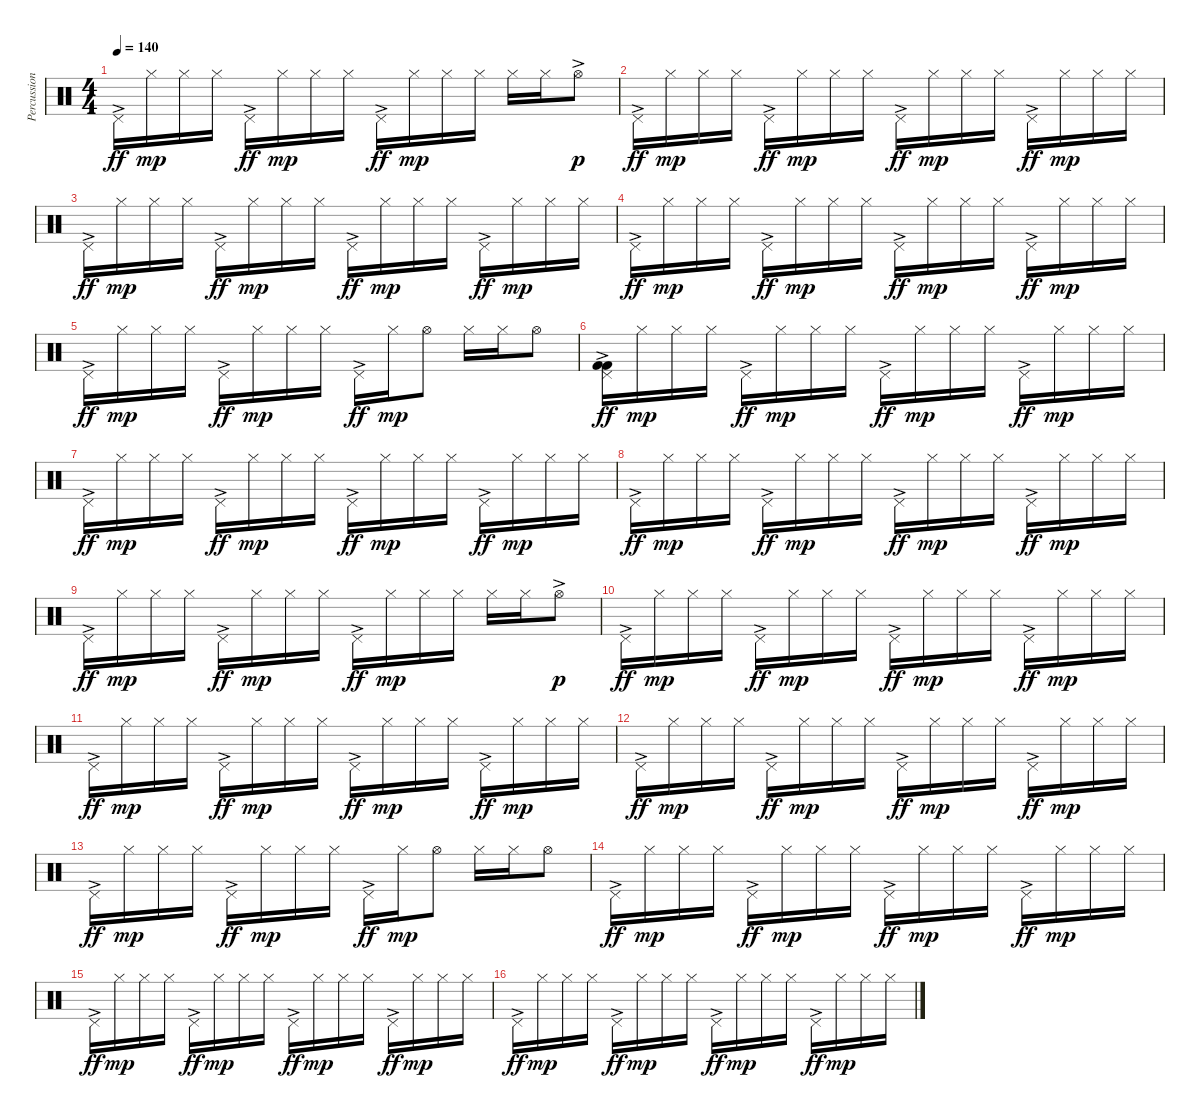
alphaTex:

\track ("Percussion" "Percussion") {instrument percussion}
\staff {score}
\articulation defaults
\ts (4 4)
\tempo 140
\clef neutral
\ks c "Pedal Hi-Hat (hit)"{ac}.16{dy ff} "Hi-Hat (closed)".16{dy mp} "Hi-Hat (closed)".16 "Hi-Hat (closed)".16 "Pedal Hi-Hat (hit)"{ac}.16{dy ff} "Hi-Hat (closed)".16{dy mp} "Hi-Hat (closed)".16 "Hi-Hat (closed)".16 "Pedal Hi-Hat (hit)"{ac}.16{dy ff} "Hi-Hat (closed)".16{dy mp} "Hi-Hat (closed)".16 "Hi-Hat (closed)".16 "Hi-Hat (closed)".16 "Hi-Hat (closed)".16 "Hi-Hat (open)"{ac}.8{dy p}
|
"Pedal Hi-Hat (hit)"{ac}.16{dy ff} "Hi-Hat (closed)".16{dy mp} "Hi-Hat (closed)".16 "Hi-Hat (closed)".16 "Pedal Hi-Hat (hit)"{ac}.16{dy ff} "Hi-Hat (closed)".16{dy mp} "Hi-Hat (closed)".16 "Hi-Hat (closed)".16 "Pedal Hi-Hat (hit)"{ac}.16{dy ff} "Hi-Hat (closed)".16{dy mp} "Hi-Hat (closed)".16 "Hi-Hat (closed)".16 "Pedal Hi-Hat (hit)"{ac}.16{dy ff} "Hi-Hat (closed)".16{dy mp} "Hi-Hat (closed)".16 "Hi-Hat (closed)".16 |
"Pedal Hi-Hat (hit)"{ac}.16{dy ff} "Hi-Hat (closed)".16{dy mp} "Hi-Hat (closed)".16 "Hi-Hat (closed)".16 "Pedal Hi-Hat (hit)"{ac}.16{dy ff} "Hi-Hat (closed)".16{dy mp} "Hi-Hat (closed)".16 "Hi-Hat (closed)".16 "Pedal Hi-Hat (hit)"{ac}.16{dy ff} "Hi-Hat (closed)".16{dy mp} "Hi-Hat (closed)".16 "Hi-Hat (closed)".16 "Pedal Hi-Hat (hit)"{ac}.16{dy ff} "Hi-Hat (closed)".16{dy mp} "Hi-Hat (closed)".16 "Hi-Hat (closed)".16 |
"Pedal Hi-Hat (hit)"{ac}.16{dy ff} "Hi-Hat (closed)".16{dy mp} "Hi-Hat (closed)".16 "Hi-Hat (closed)".16 "Pedal Hi-Hat (hit)"{ac}.16{dy ff} "Hi-Hat (closed)".16{dy mp} "Hi-Hat (closed)".16 "Hi-Hat (closed)".16 "Pedal Hi-Hat (hit)"{ac}.16{dy ff} "Hi-Hat (closed)".16{dy mp} "Hi-Hat (closed)".16 "Hi-Hat (closed)".16 "Pedal Hi-Hat (hit)"{ac}.16{dy ff} "Hi-Hat (closed)".16{dy mp} "Hi-Hat (closed)".16 "Hi-Hat (closed)".16 |
"Pedal Hi-Hat (hit)"{ac}.16{dy ff} "Hi-Hat (closed)".16{dy mp} "Hi-Hat (closed)".16 "Hi-Hat (closed)".16 "Pedal Hi-Hat (hit)"{ac}.16{dy ff} "Hi-Hat (closed)".16{dy mp} "Hi-Hat (closed)".16 "Hi-Hat (closed)".16 "Pedal Hi-Hat (hit)"{ac}.16{dy ff} "Hi-Hat (closed)".16{dy mp} "Hi-Hat (open)".8 "Hi-Hat (closed)".16 "Hi-Hat (closed)".16 "Hi-Hat (open)".8 |
("Pedal Hi-Hat (hit)"{ac} "Kick (hit) 2" "Kick (hit) 2").16{dy ff} "Hi-Hat (closed)".16{dy mp} "Hi-Hat (closed)".16 "Hi-Hat (closed)".16 "Pedal Hi-Hat (hit)"{ac}.16{dy ff} "Hi-Hat (closed)".16{dy mp} "Hi-Hat (closed)".16 "Hi-Hat (closed)".16 "Pedal Hi-Hat (hit)"{ac}.16{dy ff} "Hi-Hat (closed)".16{dy mp} "Hi-Hat (closed)".16 "Hi-Hat (closed)".16 "Pedal Hi-Hat (hit)"{ac}.16{dy ff} "Hi-Hat (closed)".16{dy mp} "Hi-Hat (closed)".16 "Hi-Hat (closed)".16 |
"Pedal Hi-Hat (hit)"{ac}.16{dy ff} "Hi-Hat (closed)".16{dy mp} "Hi-Hat (closed)".16 "Hi-Hat (closed)".16 "Pedal Hi-Hat (hit)"{ac}.16{dy ff} "Hi-Hat (closed)".16{dy mp} "Hi-Hat (closed)".16 "Hi-Hat (closed)".16 "Pedal Hi-Hat (hit)"{ac}.16{dy ff} "Hi-Hat (closed)".16{dy mp} "Hi-Hat (closed)".16 "Hi-Hat (closed)".16 "Pedal Hi-Hat (hit)"{ac}.16{dy ff} "Hi-Hat (closed)".16{dy mp} "Hi-Hat (closed)".16 "Hi-Hat (closed)".16 |
"Pedal Hi-Hat (hit)"{ac}.16{dy ff} "Hi-Hat (closed)".16{dy mp} "Hi-Hat (closed)".16 "Hi-Hat (closed)".16 "Pedal Hi-Hat (hit)"{ac}.16{dy ff} "Hi-Hat (closed)".16{dy mp} "Hi-Hat (closed)".16 "Hi-Hat (closed)".16 "Pedal Hi-Hat (hit)"{ac}.16{dy ff} "Hi-Hat (closed)".16{dy mp} "Hi-Hat (closed)".16 "Hi-Hat (closed)".16 "Pedal Hi-Hat (hit)"{ac}.16{dy ff} "Hi-Hat (closed)".16{dy mp} "Hi-Hat (closed)".16 "Hi-Hat (closed)".16 |
"Pedal Hi-Hat (hit)"{ac}.16{dy ff} "Hi-Hat (closed)".16{dy mp} "Hi-Hat (closed)".16 "Hi-Hat (closed)".16 "Pedal Hi-Hat (hit)"{ac}.16{dy ff} "Hi-Hat (closed)".16{dy mp} "Hi-Hat (closed)".16 "Hi-Hat (closed)".16 "Pedal Hi-Hat (hit)"{ac}.16{dy ff} "Hi-Hat (closed)".16{dy mp} "Hi-Hat (closed)".16 "Hi-Hat (closed)".16 "Hi-Hat (closed)".16 "Hi-Hat (closed)".16 "Hi-Hat (open)"{ac}.8{dy p} |
"Pedal Hi-Hat (hit)"{ac}.16{dy ff} "Hi-Hat (closed)".16{dy mp} "Hi-Hat (closed)".16 "Hi-Hat (closed)".16 "Pedal Hi-Hat (hit)"{ac}.16{dy ff} "Hi-Hat (closed)".16{dy mp} "Hi-Hat (closed)".16 "Hi-Hat (closed)".16 "Pedal Hi-Hat (hit)"{ac}.16{dy ff} "Hi-Hat (closed)".16{dy mp} "Hi-Hat (closed)".16 "Hi-Hat (closed)".16 "Pedal Hi-Hat (hit)"{ac}.16{dy ff} "Hi-Hat (closed)".16{dy mp} "Hi-Hat (closed)".16 "Hi-Hat (closed)".16 |
"Pedal Hi-Hat (hit)"{ac}.16{dy ff} "Hi-Hat (closed)".16{dy mp} "Hi-Hat (closed)".16 "Hi-Hat (closed)".16 "Pedal Hi-Hat (hit)"{ac}.16{dy ff} "Hi-Hat (closed)".16{dy mp} "Hi-Hat (closed)".16 "Hi-Hat (closed)".16 "Pedal Hi-Hat (hit)"{ac}.16{dy ff} "Hi-Hat (closed)".16{dy mp} "Hi-Hat (closed)".16 "Hi-Hat (closed)".16 "Pedal Hi-Hat (hit)"{ac}.16{dy ff} "Hi-Hat (closed)".16{dy mp} "Hi-Hat (closed)".16 "Hi-Hat (closed)".16 |
"Pedal Hi-Hat (hit)"{ac}.16{dy ff} "Hi-Hat (closed)".16{dy mp} "Hi-Hat (closed)".16 "Hi-Hat (closed)".16 "Pedal Hi-Hat (hit)"{ac}.16{dy ff} "Hi-Hat (closed)".16{dy mp} "Hi-Hat (closed)".16 "Hi-Hat (closed)".16 "Pedal Hi-Hat (hit)"{ac}.16{dy ff} "Hi-Hat (closed)".16{dy mp} "Hi-Hat (closed)".16 "Hi-Hat (closed)".16 "Pedal Hi-Hat (hit)"{ac}.16{dy ff} "Hi-Hat (closed)".16{dy mp} "Hi-Hat (closed)".16 "Hi-Hat (closed)".16 |
"Pedal Hi-Hat (hit)"{ac}.16{dy ff} "Hi-Hat (closed)".16{dy mp} "Hi-Hat (closed)".16 "Hi-Hat (closed)".16 "Pedal Hi-Hat (hit)"{ac}.16{dy ff} "Hi-Hat (closed)".16{dy mp} "Hi-Hat (closed)".16 "Hi-Hat (closed)".16 "Pedal Hi-Hat (hit)"{ac}.16{dy ff} "Hi-Hat (closed)".16{dy mp} "Hi-Hat (open)".8 "Hi-Hat (closed)".16 "Hi-Hat (closed)".16 "Hi-Hat (open)".8 |
"Pedal Hi-Hat (hit)"{ac}.16{dy ff} "Hi-Hat (closed)".16{dy mp} "Hi-Hat (closed)".16 "Hi-Hat (closed)".16 "Pedal Hi-Hat (hit)"{ac}.16{dy ff} "Hi-Hat (closed)".16{dy mp} "Hi-Hat (closed)".16 "Hi-Hat (closed)".16 "Pedal Hi-Hat (hit)"{ac}.16{dy ff} "Hi-Hat (closed)".16{dy mp} "Hi-Hat (closed)".16 "Hi-Hat (closed)".16 "Pedal Hi-Hat (hit)"{ac}.16{dy ff} "Hi-Hat (closed)".16{dy mp} "Hi-Hat (closed)".16 "Hi-Hat (closed)".16 |
"Pedal Hi-Hat (hit)"{ac}.16{dy ff} "Hi-Hat (closed)".16{dy mp} "Hi-Hat (closed)".16 "Hi-Hat (closed)".16 "Pedal Hi-Hat (hit)"{ac}.16{dy ff} "Hi-Hat (closed)".16{dy mp} "Hi-Hat (closed)".16 "Hi-Hat (closed)".16 "Pedal Hi-Hat (hit)"{ac}.16{dy ff} "Hi-Hat (closed)".16{dy mp} "Hi-Hat (closed)".16 "Hi-Hat (closed)".16 "Pedal Hi-Hat (hit)"{ac}.16{dy ff} "Hi-Hat (closed)".16{dy mp} "Hi-Hat (closed)".16 "Hi-Hat (closed)".16 |
"Pedal Hi-Hat (hit)"{ac}.16{dy ff} "Hi-Hat (closed)".16{dy mp} "Hi-Hat (closed)".16 "Hi-Hat (closed)".16 "Pedal Hi-Hat (hit)"{ac}.16{dy ff} "Hi-Hat (closed)".16{dy mp} "Hi-Hat (closed)".16 "Hi-Hat (closed)".16 "Pedal Hi-Hat (hit)"{ac}.16{dy ff} "Hi-Hat (closed)".16{dy mp} "Hi-Hat (closed)".16 "Hi-Hat (closed)".16 "Pedal Hi-Hat (hit)"{ac}.16{dy ff} "Hi-Hat (closed)".16{dy mp} "Hi-Hat (closed)".16 "Hi-Hat (closed)".16
